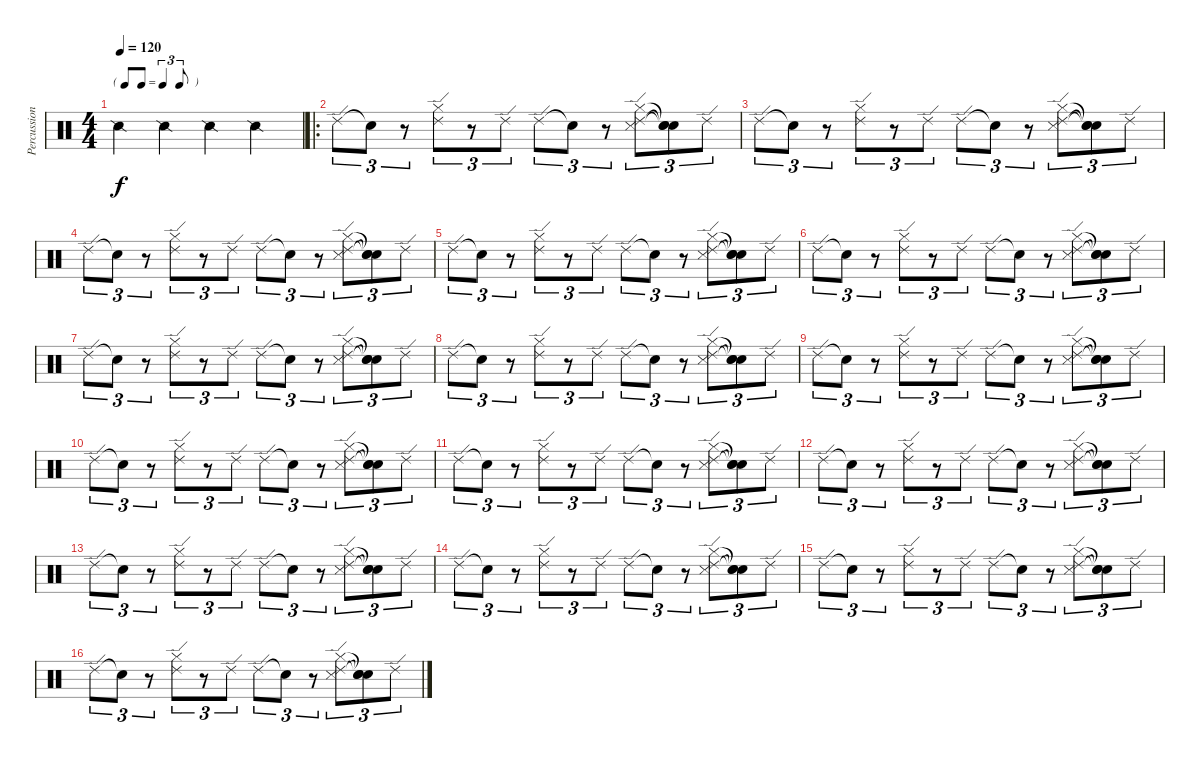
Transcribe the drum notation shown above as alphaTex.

\track ("Percussions" "Percussion") {instrument percussion}
\staff {score}
\articulation defaults
\ts (4 4)
\tf triplet8th
\tempo 120
\clef neutral
\ks c "Snare (side stick) 2".4{dy f} "Snare (side stick) 2".4 "Snare (side stick) 2".4 "Snare (side stick) 2".4
|
\ro "Ride (edge) 2".8{tu (3 2)} "Snare (hit)"{t}.8{tu (3 2)}
r.8{tu (3 2)} ("Ride (edge) 2" "Hi-Hat (closed)").8{tu (3 2)} r.8{tu (3 2)} "Ride (edge) 2".8{tu (3 2)} "Ride (edge) 2".8{tu (3 2)} "Snare (hit)"{t}.8{tu (3 2)} r.8{tu (3 2)} ("Ride (edge) 2" "Snare (side stick) 3" "Hi-Hat (closed)").8{tu (3 2)} ("Snare (hit)"{t} "Snare (hit)"{t} "Snare (hit)"{t}).8{tu (3 2)} "Ride (edge) 2".8{tu (3 2)} |
"Ride (edge) 2".8{tu (3 2)} "Snare (hit)"{t}.8{tu (3 2)} r.8{tu (3 2)} ("Ride (edge) 2" "Hi-Hat (closed)").8{tu (3 2)} r.8{tu (3 2)} "Ride (edge) 2".8{tu (3 2)} "Ride (edge) 2".8{tu (3 2)} "Snare (hit)"{t}.8{tu (3 2)} r.8{tu (3 2)} ("Ride (edge) 2" "Snare (side stick) 3" "Hi-Hat (closed)").8{tu (3 2)} ("Snare (hit)"{t} "Snare (hit)"{t} "Snare (hit)"{t}).8{tu (3 2)} "Ride (edge) 2".8{tu (3 2)} |
"Ride (edge) 2".8{tu (3 2)} "Snare (hit)"{t}.8{tu (3 2)} r.8{tu (3 2)} ("Ride (edge) 2" "Hi-Hat (closed)").8{tu (3 2)} r.8{tu (3 2)} "Ride (edge) 2".8{tu (3 2)} "Ride (edge) 2".8{tu (3 2)} "Snare (hit)"{t}.8{tu (3 2)} r.8{tu (3 2)} ("Ride (edge) 2" "Snare (side stick) 3" "Hi-Hat (closed)").8{tu (3 2)} ("Snare (hit)"{t} "Snare (hit)"{t} "Snare (hit)"{t}).8{tu (3 2)} "Ride (edge) 2".8{tu (3 2)} |
"Ride (edge) 2".8{tu (3 2)} "Snare (hit)"{t}.8{tu (3 2)} r.8{tu (3 2)} ("Ride (edge) 2" "Hi-Hat (closed)").8{tu (3 2)} r.8{tu (3 2)} "Ride (edge) 2".8{tu (3 2)} "Ride (edge) 2".8{tu (3 2)} "Snare (hit)"{t}.8{tu (3 2)} r.8{tu (3 2)} ("Ride (edge) 2" "Snare (side stick) 3" "Hi-Hat (closed)").8{tu (3 2)} ("Snare (hit)"{t} "Snare (hit)"{t} "Snare (hit)"{t}).8{tu (3 2)} "Ride (edge) 2".8{tu (3 2)} |
"Ride (edge) 2".8{tu (3 2)} "Snare (hit)"{t}.8{tu (3 2)} r.8{tu (3 2)} ("Ride (edge) 2" "Hi-Hat (closed)").8{tu (3 2)} r.8{tu (3 2)} "Ride (edge) 2".8{tu (3 2)} "Ride (edge) 2".8{tu (3 2)} "Snare (hit)"{t}.8{tu (3 2)} r.8{tu (3 2)} ("Ride (edge) 2" "Snare (side stick) 3" "Hi-Hat (closed)").8{tu (3 2)} ("Snare (hit)"{t} "Snare (hit)"{t} "Snare (hit)"{t}).8{tu (3 2)} "Ride (edge) 2".8{tu (3 2)} |
"Ride (edge) 2".8{tu (3 2)} "Snare (hit)"{t}.8{tu (3 2)} r.8{tu (3 2)} ("Ride (edge) 2" "Hi-Hat (closed)").8{tu (3 2)} r.8{tu (3 2)} "Ride (edge) 2".8{tu (3 2)} "Ride (edge) 2".8{tu (3 2)} "Snare (hit)"{t}.8{tu (3 2)} r.8{tu (3 2)} ("Ride (edge) 2" "Snare (side stick) 3" "Hi-Hat (closed)").8{tu (3 2)} ("Snare (hit)"{t} "Snare (hit)"{t} "Snare (hit)"{t}).8{tu (3 2)} "Ride (edge) 2".8{tu (3 2)} |
"Ride (edge) 2".8{tu (3 2)} "Snare (hit)"{t}.8{tu (3 2)} r.8{tu (3 2)} ("Ride (edge) 2" "Hi-Hat (closed)").8{tu (3 2)} r.8{tu (3 2)} "Ride (edge) 2".8{tu (3 2)} "Ride (edge) 2".8{tu (3 2)} "Snare (hit)"{t}.8{tu (3 2)} r.8{tu (3 2)} ("Ride (edge) 2" "Snare (side stick) 3" "Hi-Hat (closed)").8{tu (3 2)} ("Snare (hit)"{t} "Snare (hit)"{t} "Snare (hit)"{t}).8{tu (3 2)} "Ride (edge) 2".8{tu (3 2)} |
"Ride (edge) 2".8{tu (3 2)} "Snare (hit)"{t}.8{tu (3 2)} r.8{tu (3 2)} ("Ride (edge) 2" "Hi-Hat (closed)").8{tu (3 2)} r.8{tu (3 2)} "Ride (edge) 2".8{tu (3 2)} "Ride (edge) 2".8{tu (3 2)} "Snare (hit)"{t}.8{tu (3 2)} r.8{tu (3 2)} ("Ride (edge) 2" "Snare (side stick) 3" "Hi-Hat (closed)").8{tu (3 2)} ("Snare (hit)"{t} "Snare (hit)"{t} "Snare (hit)"{t}).8{tu (3 2)} "Ride (edge) 2".8{tu (3 2)} |
"Ride (edge) 2".8{tu (3 2)} "Snare (hit)"{t}.8{tu (3 2)} r.8{tu (3 2)} ("Ride (edge) 2" "Hi-Hat (closed)").8{tu (3 2)} r.8{tu (3 2)} "Ride (edge) 2".8{tu (3 2)} "Ride (edge) 2".8{tu (3 2)} "Snare (hit)"{t}.8{tu (3 2)} r.8{tu (3 2)} ("Ride (edge) 2" "Snare (side stick) 3" "Hi-Hat (closed)").8{tu (3 2)} ("Snare (hit)"{t} "Snare (hit)"{t} "Snare (hit)"{t}).8{tu (3 2)} "Ride (edge) 2".8{tu (3 2)} |
"Ride (edge) 2".8{tu (3 2)} "Snare (hit)"{t}.8{tu (3 2)} r.8{tu (3 2)} ("Ride (edge) 2" "Hi-Hat (closed)").8{tu (3 2)} r.8{tu (3 2)} "Ride (edge) 2".8{tu (3 2)} "Ride (edge) 2".8{tu (3 2)} "Snare (hit)"{t}.8{tu (3 2)} r.8{tu (3 2)} ("Ride (edge) 2" "Snare (side stick) 3" "Hi-Hat (closed)").8{tu (3 2)} ("Snare (hit)"{t} "Snare (hit)"{t} "Snare (hit)"{t}).8{tu (3 2)} "Ride (edge) 2".8{tu (3 2)} |
"Ride (edge) 2".8{tu (3 2)} "Snare (hit)"{t}.8{tu (3 2)} r.8{tu (3 2)} ("Ride (edge) 2" "Hi-Hat (closed)").8{tu (3 2)} r.8{tu (3 2)} "Ride (edge) 2".8{tu (3 2)} "Ride (edge) 2".8{tu (3 2)} "Snare (hit)"{t}.8{tu (3 2)} r.8{tu (3 2)} ("Ride (edge) 2" "Snare (side stick) 3" "Hi-Hat (closed)").8{tu (3 2)} ("Snare (hit)"{t} "Snare (hit)"{t} "Snare (hit)"{t}).8{tu (3 2)} "Ride (edge) 2".8{tu (3 2)} |
"Ride (edge) 2".8{tu (3 2)} "Snare (hit)"{t}.8{tu (3 2)} r.8{tu (3 2)} ("Ride (edge) 2" "Hi-Hat (closed)").8{tu (3 2)} r.8{tu (3 2)} "Ride (edge) 2".8{tu (3 2)} "Ride (edge) 2".8{tu (3 2)} "Snare (hit)"{t}.8{tu (3 2)} r.8{tu (3 2)} ("Ride (edge) 2" "Snare (side stick) 3" "Hi-Hat (closed)").8{tu (3 2)} ("Snare (hit)"{t} "Snare (hit)"{t} "Snare (hit)"{t}).8{tu (3 2)} "Ride (edge) 2".8{tu (3 2)} |
"Ride (edge) 2".8{tu (3 2)} "Snare (hit)"{t}.8{tu (3 2)} r.8{tu (3 2)} ("Ride (edge) 2" "Hi-Hat (closed)").8{tu (3 2)} r.8{tu (3 2)} "Ride (edge) 2".8{tu (3 2)} "Ride (edge) 2".8{tu (3 2)} "Snare (hit)"{t}.8{tu (3 2)} r.8{tu (3 2)} ("Ride (edge) 2" "Snare (side stick) 3" "Hi-Hat (closed)").8{tu (3 2)} ("Snare (hit)"{t} "Snare (hit)"{t} "Snare (hit)"{t}).8{tu (3 2)} "Ride (edge) 2".8{tu (3 2)} |
"Ride (edge) 2".8{tu (3 2)} "Snare (hit)"{t}.8{tu (3 2)} r.8{tu (3 2)} ("Ride (edge) 2" "Hi-Hat (closed)").8{tu (3 2)} r.8{tu (3 2)} "Ride (edge) 2".8{tu (3 2)} "Ride (edge) 2".8{tu (3 2)} "Snare (hit)"{t}.8{tu (3 2)} r.8{tu (3 2)} ("Ride (edge) 2" "Snare (side stick) 3" "Hi-Hat (closed)").8{tu (3 2)} ("Snare (hit)"{t} "Snare (hit)"{t} "Snare (hit)"{t}).8{tu (3 2)} "Ride (edge) 2".8{tu (3 2)} |
"Ride (edge) 2".8{tu (3 2)} "Snare (hit)"{t}.8{tu (3 2)} r.8{tu (3 2)} ("Ride (edge) 2" "Hi-Hat (closed)").8{tu (3 2)} r.8{tu (3 2)} "Ride (edge) 2".8{tu (3 2)} "Ride (edge) 2".8{tu (3 2)} "Snare (hit)"{t}.8{tu (3 2)} r.8{tu (3 2)} ("Ride (edge) 2" "Snare (side stick) 3" "Hi-Hat (closed)").8{tu (3 2)} ("Snare (hit)"{t} "Snare (hit)"{t} "Snare (hit)"{t}).8{tu (3 2)} "Ride (edge) 2".8{tu (3 2)}
